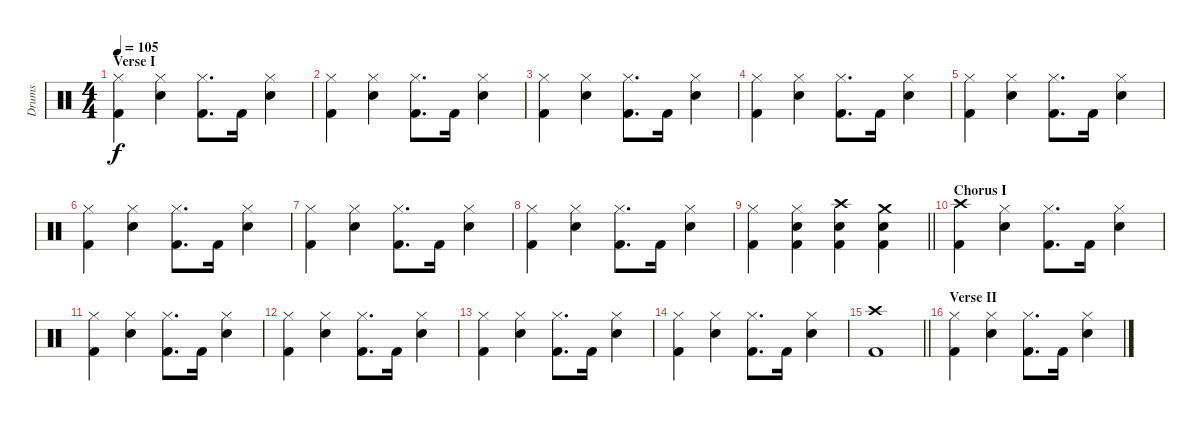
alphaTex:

\track ("Drums" "Drums") {instrument percussion}
\staff {score}
\articulation defaults
\ts (4 4)
\section ("" "Verse I")
\tempo 105
\clef neutral
\ks c
("Hi-Hat (closed)" "Kick (hit) 2").4{dy f} ("Hi-Hat (closed)" "Snare (hit) 2").4 ("Hi-Hat (closed)" "Kick (hit) 2").8{d} "Kick (hit) 2".16 ("Hi-Hat (closed)" "Snare (hit) 2").4 |
("Hi-Hat (closed)" "Kick (hit) 2").4 ("Hi-Hat (closed)" "Snare (hit) 2").4 ("Hi-Hat (closed)" "Kick (hit) 2").8{d} "Kick (hit) 2".16 ("Hi-Hat (closed)" "Snare (hit) 2").4 |
("Hi-Hat (closed)" "Kick (hit) 2").4 ("Hi-Hat (closed)" "Snare (hit) 2").4 ("Hi-Hat (closed)" "Kick (hit) 2").8{d} "Kick (hit) 2".16 ("Hi-Hat (closed)" "Snare (hit) 2").4 |
("Hi-Hat (closed)" "Kick (hit) 2").4 ("Hi-Hat (closed)" "Snare (hit) 2").4 ("Hi-Hat (closed)" "Kick (hit) 2").8{d} "Kick (hit) 2".16 ("Hi-Hat (closed)" "Snare (hit) 2").4 |
("Hi-Hat (closed)" "Kick (hit) 2").4 ("Hi-Hat (closed)" "Snare (hit) 2").4 ("Hi-Hat (closed)" "Kick (hit) 2").8{d} "Kick (hit) 2".16 ("Hi-Hat (closed)" "Snare (hit) 2").4 |
("Hi-Hat (closed)" "Kick (hit) 2").4 ("Hi-Hat (closed)" "Snare (hit) 2").4 ("Hi-Hat (closed)" "Kick (hit) 2").8{d} "Kick (hit) 2".16 ("Hi-Hat (closed)" "Snare (hit) 2").4 |
("Hi-Hat (closed)" "Kick (hit) 2").4 ("Hi-Hat (closed)" "Snare (hit) 2").4 ("Hi-Hat (closed)" "Kick (hit) 2").8{d} "Kick (hit) 2".16 ("Hi-Hat (closed)" "Snare (hit) 2").4 |
("Hi-Hat (closed)" "Kick (hit) 2").4 ("Hi-Hat (closed)" "Snare (hit) 2").4 ("Hi-Hat (closed)" "Kick (hit) 2").8{d} "Kick (hit) 2".16 ("Hi-Hat (closed)" "Snare (hit) 2").4 |
\barLineRight lightlight
("Hi-Hat (closed)" "Kick (hit) 2").4 ("Hi-Hat (closed)" "Snare (hit) 2" "Kick (hit) 2").4 ("Crash high (hit)" "Snare (hit) 2" "Kick (hit) 2").4 ("Crash medium (hit)" "Snare (hit) 2" "Kick (hit) 2").4 |
\section ("" "Chorus I")
("Crash high (hit)" "Kick (hit) 2").4 ("Hi-Hat (closed)" "Snare (hit) 2").4 ("Hi-Hat (closed)" "Kick (hit) 2").8{d} "Kick (hit) 2".16 ("Hi-Hat (closed)" "Snare (hit) 2").4 |
("Hi-Hat (closed)" "Kick (hit) 2").4 ("Hi-Hat (closed)" "Snare (hit) 2").4 ("Hi-Hat (closed)" "Kick (hit) 2").8{d} "Kick (hit) 2".16 ("Hi-Hat (closed)" "Snare (hit) 2").4 |
("Hi-Hat (closed)" "Kick (hit) 2").4 ("Hi-Hat (closed)" "Snare (hit) 2").4 ("Hi-Hat (closed)" "Kick (hit) 2").8{d} "Kick (hit) 2".16 ("Hi-Hat (closed)" "Snare (hit) 2").4 |
("Hi-Hat (closed)" "Kick (hit) 2").4 ("Hi-Hat (closed)" "Snare (hit) 2").4 ("Hi-Hat (closed)" "Kick (hit) 2").8{d} "Kick (hit) 2".16 ("Hi-Hat (closed)" "Snare (hit) 2").4 |
("Hi-Hat (closed)" "Kick (hit) 2").4 ("Hi-Hat (closed)" "Snare (hit) 2").4 ("Hi-Hat (closed)" "Kick (hit) 2").8{d} "Kick (hit) 2".16 ("Hi-Hat (closed)" "Snare (hit) 2").4 |
\barLineRight lightlight
("Crash high (hit)" "Kick (hit) 2").1 |
\section ("" "Verse II")
("Hi-Hat (closed)" "Kick (hit) 2").4 ("Hi-Hat (closed)" "Snare (hit) 2").4 ("Hi-Hat (closed)" "Kick (hit) 2").8{d} "Kick (hit) 2".16 ("Hi-Hat (closed)" "Snare (hit) 2").4
